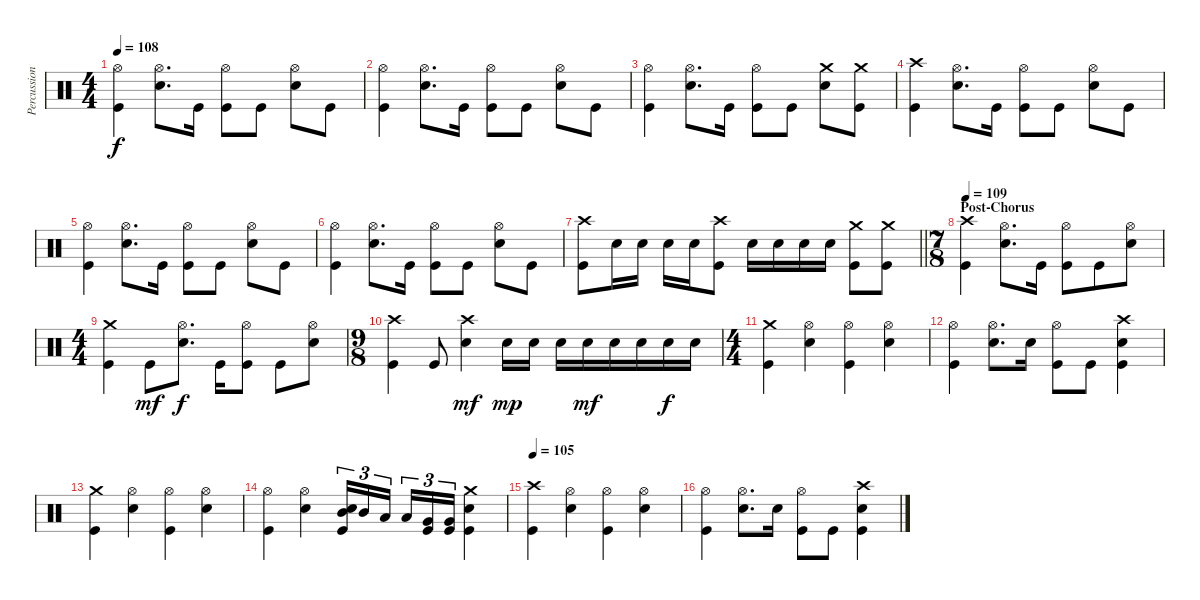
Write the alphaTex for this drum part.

\track ("Percussions" "Percussion") {instrument percussion}
\staff {score}
\articulation defaults
\ts (4 4)
\tempo 108
\clef neutral
\ks c
("Hi-Hat (open)" "Kick (hit)").4{dy f} ("Hi-Hat (open)" "Electric Snare (hit)").8{d} "Kick (hit)".16 ("Hi-Hat (open)" "Kick (hit)").8 "Kick (hit)".8 ("Hi-Hat (open)" "Electric Snare (hit)").8 "Kick (hit)".8 |
("Hi-Hat (open)" "Kick (hit)").4 ("Hi-Hat (open)" "Electric Snare (hit)").8{d} "Kick (hit)".16 ("Hi-Hat (open)" "Kick (hit)").8 "Kick (hit)".8 ("Hi-Hat (open)" "Electric Snare (hit)").8 "Kick (hit)".8 |
("Hi-Hat (open)" "Kick (hit)").4 ("Hi-Hat (open)" "Electric Snare (hit)").8{d} "Kick (hit)".16 ("Hi-Hat (open)" "Kick (hit)").8 "Kick (hit)".8 ("Crash medium (hit)" "Electric Snare (hit)").8 ("Crash medium (hit)" "Kick (hit)").8 |
("Crash high (hit)" "Kick (hit)").4 ("Hi-Hat (open)" "Electric Snare (hit)").8{d} "Kick (hit)".16 ("Hi-Hat (open)" "Kick (hit)").8 "Kick (hit)".8 ("Hi-Hat (open)" "Electric Snare (hit)").8 "Kick (hit)".8 |
("Hi-Hat (open)" "Kick (hit)").4 ("Hi-Hat (open)" "Electric Snare (hit)").8{d} "Kick (hit)".16 ("Hi-Hat (open)" "Kick (hit)").8 "Kick (hit)".8 ("Hi-Hat (open)" "Electric Snare (hit)").8 "Kick (hit)".8 |
("Hi-Hat (open)" "Kick (hit)").4 ("Hi-Hat (open)" "Electric Snare (hit)").8{d} "Kick (hit)".16 ("Hi-Hat (open)" "Kick (hit)").8 "Kick (hit)".8 ("Hi-Hat (open)" "Electric Snare (hit)").8 "Kick (hit)".8 |
\barLineRight lightlight
("Crash high (hit)" "Kick (hit)").8 "Electric Snare (hit)".16 "Electric Snare (hit)".16 "Electric Snare (hit)".16 "Electric Snare (hit)".16 ("Crash high (hit)" "Kick (hit)").8 "Electric Snare (hit)".16 "Electric Snare (hit)".16 "Electric Snare (hit)".16 "Electric Snare (hit)".16 ("Crash medium (hit)" "Kick (hit)").8 ("Crash medium (hit)" "Kick (hit)").8 |
\ts (7 8)
\section ("" "Post-Chorus")
\tempo 109
("Crash high (hit)" "Kick (hit)").4 ("Hi-Hat (open)" "Electric Snare (hit)").8{d} "Kick (hit)".16 ("Hi-Hat (open)" "Kick (hit)").8 "Kick (hit)".8 ("Hi-Hat (open)" "Electric Snare (hit)").8 |
\ts (4 4)
("Crash medium (hit)" "Kick (hit)").4 "Kick (hit)".8{dy mf} ("Hi-Hat (open)" "Electric Snare (hit)").8{d dy f} "Kick (hit)".16 ("Hi-Hat (open)" "Kick (hit)").8 "Kick (hit)".8 ("Hi-Hat (open)" "Electric Snare (hit)").8 |
\ts (9 8)
("Crash high (hit)" "Kick (hit)").4 "Kick (hit)".8 ("Crash high (hit)" "Electric Snare (hit)").4{dy mf} "Electric Snare (hit)".16{dy mp} "Electric Snare (hit)".16 "Electric Snare (hit)".16 "Electric Snare (hit)".16{dy mf} "Electric Snare (hit)".16 "Electric Snare (hit)".16 "Electric Snare (hit)".16{dy f} "Electric Snare (hit)".16 |
\ts (4 4)
("Crash medium (hit)" "Kick (hit)").4 ("Hi-Hat (open)" "Electric Snare (hit)").4 ("Hi-Hat (open)" "Kick (hit)").4 ("Hi-Hat (open)" "Electric Snare (hit)").4 |
("Hi-Hat (open)" "Kick (hit)").4 ("Hi-Hat (open)" "Electric Snare (hit)").8{d} "Electric Snare (hit)".16 ("Hi-Hat (open)" "Kick (hit)").8 "Kick (hit)".8 ("Crash high (hit)" "Electric Snare (hit)" "Kick (hit)").4 |
("Crash medium (hit)" "Kick (hit)").4 ("Hi-Hat (open)" "Electric Snare (hit)").4 ("Hi-Hat (open)" "Kick (hit)").4 ("Hi-Hat (open)" "Electric Snare (hit)").4 |
("Hi-Hat (open)" "Kick (hit)").4 ("Hi-Hat (open)" "Electric Snare (hit)").4 ("Electric Snare (hit)" "Mid Tom (hit)" "Kick (hit)").16{tu (3 2)} "Mid Tom (hit)".16{tu (3 2)} "Low Tom (hit)".16{tu (3 2) beam splitsecondary} "Low Tom (hit)".16{tu (3 2)} ("Very Low Tom (hit)" "Kick (hit)").16{tu (3 2)} ("Very Low Tom (hit)" "Kick (hit)").16{tu (3 2)} ("Crash medium (hit)" "Electric Snare (hit)" "Kick (hit)").4 |
\tempo 105
("Crash high (hit)" "Kick (hit)").4 ("Hi-Hat (open)" "Electric Snare (hit)").4 ("Hi-Hat (open)" "Kick (hit)").4 ("Hi-Hat (open)" "Electric Snare (hit)").4 |
("Hi-Hat (open)" "Kick (hit)").4 ("Hi-Hat (open)" "Electric Snare (hit)").8{d} "Electric Snare (hit)".16 ("Hi-Hat (open)" "Kick (hit)").8 "Kick (hit)".8 ("Crash high (hit)" "Electric Snare (hit)" "Kick (hit)").4
